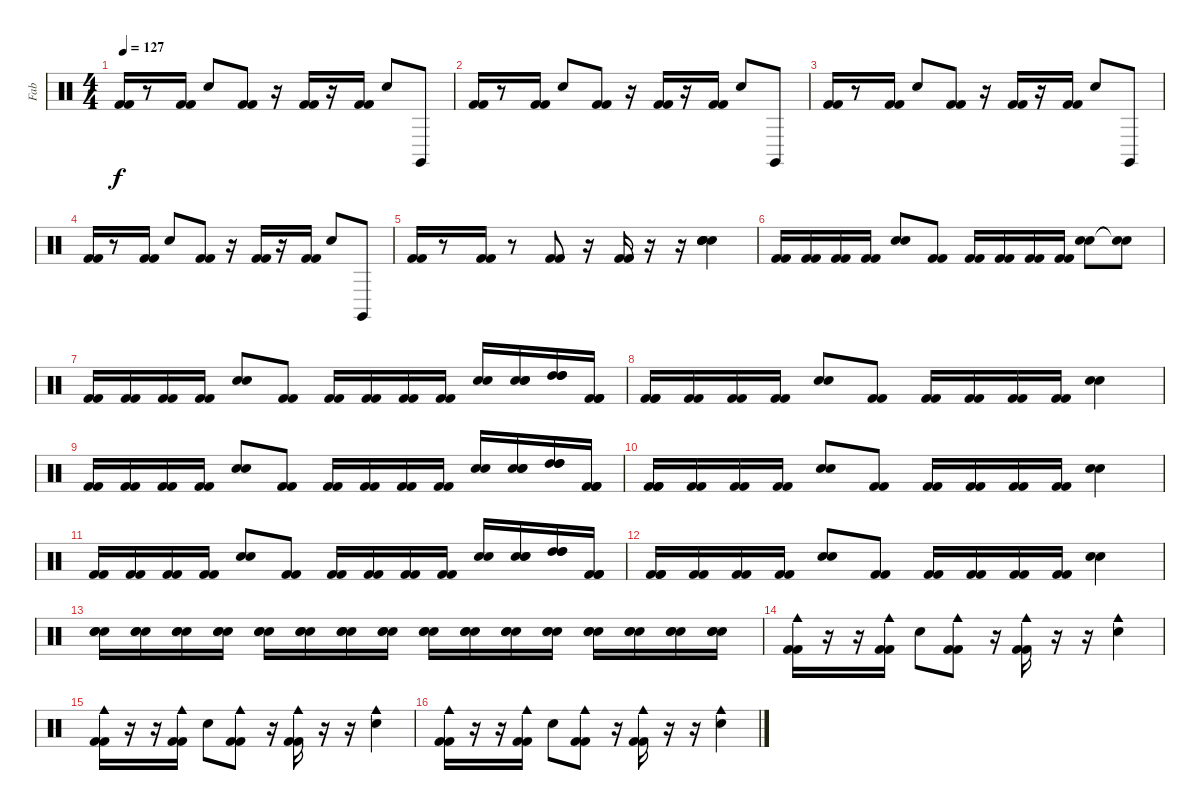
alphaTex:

\track ("Fab" "Fab") {instrument percussion}
\staff {score}
\articulation defaults
\ts (4 4)
\tempo 127
\clef neutral
\ks c
("Kick (hit) 2" "Kick (hit) 2").16{dy f} r.8 ("Kick (hit) 2" "Kick (hit) 2").16 "Electric Snare (hit)".8 ("Kick (hit) 2" "Kick (hit) 2").8 r.16 ("Kick (hit) 2" "Kick (hit) 2").16 r.16 ("Kick (hit) 2" "Kick (hit) 2").16 "Electric Snare (hit)".8 "Claves (hit)".8 |
("Kick (hit) 2" "Kick (hit) 2").16 r.8 ("Kick (hit) 2" "Kick (hit) 2").16 "Electric Snare (hit)".8 ("Kick (hit) 2" "Kick (hit) 2").8 r.16 ("Kick (hit) 2" "Kick (hit) 2").16 r.16 ("Kick (hit) 2" "Kick (hit) 2").16 "Electric Snare (hit)".8 "Claves (hit)".8 |
("Kick (hit) 2" "Kick (hit) 2").16 r.8 ("Kick (hit) 2" "Kick (hit) 2").16 "Electric Snare (hit)".8 ("Kick (hit) 2" "Kick (hit) 2").8 r.16 ("Kick (hit) 2" "Kick (hit) 2").16 r.16 ("Kick (hit) 2" "Kick (hit) 2").16 "Electric Snare (hit)".8 "Claves (hit)".8 |
("Kick (hit) 2" "Kick (hit) 2").16 r.8 ("Kick (hit) 2" "Kick (hit) 2").16 "Electric Snare (hit)".8 ("Kick (hit) 2" "Kick (hit) 2").8 r.16 ("Kick (hit) 2" "Kick (hit) 2").16 r.16 ("Kick (hit) 2" "Kick (hit) 2").16 "Electric Snare (hit)".8 "Claves (hit)".8 |
("Kick (hit) 2" "Kick (hit) 2").16 r.8 ("Kick (hit) 2" "Kick (hit) 2").16 r.8 ("Kick (hit) 2" "Kick (hit) 2").8 r.16 ("Kick (hit) 2" "Kick (hit) 2").16 r.16 r.16 ("Electric Snare (hit)" "Hand Clap (hit)" "Hand Clap (hit)" "Hand Clap (hit)").4 |
("Kick (hit) 2" "Kick (hit) 2").16 ("Kick (hit) 2" "Kick (hit) 2").16 ("Kick (hit) 2" "Kick (hit) 2").16 ("Kick (hit) 2" "Kick (hit) 2").16 ("Electric Snare (hit)" "Electric Snare (hit)").8 ("Kick (hit) 2" "Kick (hit) 2").8 ("Kick (hit) 2" "Kick (hit) 2").16 ("Kick (hit) 2" "Kick (hit) 2").16 ("Kick (hit) 2" "Kick (hit) 2").16 ("Kick (hit) 2" "Kick (hit) 2").16 ("Electric Snare (hit)" "Electric Snare (hit)").8 ("Snare (hit)"{t} "Snare (hit)"{t}).8 |
("Kick (hit) 2" "Kick (hit) 2").16 ("Kick (hit) 2" "Kick (hit) 2").16 ("Kick (hit) 2" "Kick (hit) 2").16 ("Kick (hit) 2" "Kick (hit) 2").16 ("Electric Snare (hit)" "Electric Snare (hit)").8 ("Kick (hit) 2" "Kick (hit) 2").8 ("Kick (hit) 2" "Kick (hit) 2").16 ("Kick (hit) 2" "Kick (hit) 2").16 ("Kick (hit) 2" "Kick (hit) 2").16 ("Kick (hit) 2" "Kick (hit) 2").16 ("Electric Snare (hit)" "Electric Snare (hit)").16 ("Snare (hit) 2" "Snare (hit) 2" "Snare (hit) 2").16 ("High Tom (hit)" "High Tom (hit)" "High Tom (hit)").16 ("Kick (hit) 2" "Kick (hit) 2" "Kick (hit) 2").16 |
("Kick (hit) 2" "Kick (hit) 2" "Kick (hit) 2").16 ("Kick (hit) 2" "Kick (hit) 2").16 ("Kick (hit) 2" "Kick (hit) 2").16 ("Kick (hit) 2" "Kick (hit) 2").16 ("Electric Snare (hit)" "Electric Snare (hit)").8 ("Kick (hit) 2" "Kick (hit) 2").8 ("Kick (hit) 2" "Kick (hit) 2").16 ("Kick (hit) 2" "Kick (hit) 2").16 ("Kick (hit) 2" "Kick (hit) 2").16 ("Kick (hit) 2" "Kick (hit) 2").16 ("Electric Snare (hit)" "Electric Snare (hit)").4 |
("Kick (hit) 2" "Kick (hit) 2").16 ("Kick (hit) 2" "Kick (hit) 2").16 ("Kick (hit) 2" "Kick (hit) 2").16 ("Kick (hit) 2" "Kick (hit) 2").16 ("Electric Snare (hit)" "Electric Snare (hit)").8 ("Kick (hit) 2" "Kick (hit) 2").8 ("Kick (hit) 2" "Kick (hit) 2").16 ("Kick (hit) 2" "Kick (hit) 2").16 ("Kick (hit) 2" "Kick (hit) 2").16 ("Kick (hit) 2" "Kick (hit) 2").16 ("Electric Snare (hit)" "Electric Snare (hit)").16 ("Snare (hit) 2" "Snare (hit) 2" "Snare (hit) 2").16 ("High Tom (hit)" "High Tom (hit)" "High Tom (hit)").16 ("Kick (hit) 2" "Kick (hit) 2" "Kick (hit) 2").16 |
("Kick (hit) 2" "Kick (hit) 2" "Kick (hit) 2").16 ("Kick (hit) 2" "Kick (hit) 2").16 ("Kick (hit) 2" "Kick (hit) 2").16 ("Kick (hit) 2" "Kick (hit) 2").16 ("Electric Snare (hit)" "Electric Snare (hit)").8 ("Kick (hit) 2" "Kick (hit) 2").8 ("Kick (hit) 2" "Kick (hit) 2").16 ("Kick (hit) 2" "Kick (hit) 2").16 ("Kick (hit) 2" "Kick (hit) 2").16 ("Kick (hit) 2" "Kick (hit) 2").16 ("Electric Snare (hit)" "Electric Snare (hit)").4 |
("Kick (hit) 2" "Kick (hit) 2").16 ("Kick (hit) 2" "Kick (hit) 2").16 ("Kick (hit) 2" "Kick (hit) 2").16 ("Kick (hit) 2" "Kick (hit) 2").16 ("Electric Snare (hit)" "Electric Snare (hit)").8 ("Kick (hit) 2" "Kick (hit) 2").8 ("Kick (hit) 2" "Kick (hit) 2").16 ("Kick (hit) 2" "Kick (hit) 2").16 ("Kick (hit) 2" "Kick (hit) 2").16 ("Kick (hit) 2" "Kick (hit) 2").16 ("Electric Snare (hit)" "Electric Snare (hit)").16 ("Snare (hit) 2" "Snare (hit) 2" "Snare (hit) 2").16 ("High Tom (hit)" "High Tom (hit)" "High Tom (hit)").16 ("Kick (hit) 2" "Kick (hit) 2" "Kick (hit) 2").16 |
("Kick (hit) 2" "Kick (hit) 2" "Kick (hit) 2").16 ("Kick (hit) 2" "Kick (hit) 2").16 ("Kick (hit) 2" "Kick (hit) 2").16 ("Kick (hit) 2" "Kick (hit) 2").16 ("Electric Snare (hit)" "Electric Snare (hit)").8 ("Kick (hit) 2" "Kick (hit) 2").8 ("Kick (hit) 2" "Kick (hit) 2").16 ("Kick (hit) 2" "Kick (hit) 2").16 ("Kick (hit) 2" "Kick (hit) 2").16 ("Kick (hit) 2" "Kick (hit) 2").16 ("Electric Snare (hit)" "Electric Snare (hit)").4 |
("Electric Snare (hit)" "Electric Snare (hit)" "Electric Snare (hit)").16 ("Electric Snare (hit)" "Electric Snare (hit)" "Electric Snare (hit)").16 ("Electric Snare (hit)" "Electric Snare (hit)" "Electric Snare (hit)").16 ("Electric Snare (hit)" "Electric Snare (hit)" "Electric Snare (hit)").16 ("Electric Snare (hit)" "Electric Snare (hit)" "Electric Snare (hit)").16 ("Electric Snare (hit)" "Electric Snare (hit)" "Electric Snare (hit)").16 ("Electric Snare (hit)" "Electric Snare (hit)" "Electric Snare (hit)").16 ("Electric Snare (hit)" "Electric Snare (hit)" "Electric Snare (hit)").16 ("Electric Snare (hit)" "Electric Snare (hit)" "Electric Snare (hit)").16 ("Electric Snare (hit)" "Electric Snare (hit)" "Electric Snare (hit)").16 ("Electric Snare (hit)" "Electric Snare (hit)" "Electric Snare (hit)").16 ("Electric Snare (hit)" "Electric Snare (hit)" "Electric Snare (hit)").16 ("Electric Snare (hit)" "Electric Snare (hit)" "Electric Snare (hit)").16 ("Electric Snare (hit)" "Electric Snare (hit)" "Electric Snare (hit)").16 ("Electric Snare (hit)" "Electric Snare (hit)" "Electric Snare (hit)").16 ("Electric Snare (hit)" "Electric Snare (hit)" "Electric Snare (hit)").16 |
("Kick (hit) 2" "Kick (hit) 2" "Cowbell medium (hit)").16 r.16 r.16 ("Kick (hit) 2" "Kick (hit) 2" "Cowbell medium (hit)").16 "Electric Snare (hit)".8 ("Kick (hit) 2" "Kick (hit) 2" "Cowbell medium (hit)").8 r.16 ("Kick (hit) 2" "Kick (hit) 2" "Cowbell medium (hit)").16 r.16 r.16 ("Electric Snare (hit)" "Cowbell medium (hit)").4 |
("Kick (hit) 2" "Kick (hit) 2" "Cowbell medium (hit)").16 r.16 r.16 ("Kick (hit) 2" "Kick (hit) 2" "Cowbell medium (hit)").16 "Electric Snare (hit)".8 ("Kick (hit) 2" "Kick (hit) 2" "Cowbell medium (hit)").8 r.16 ("Kick (hit) 2" "Kick (hit) 2" "Cowbell medium (hit)").16 r.16 r.16 ("Electric Snare (hit)" "Cowbell medium (hit)").4 |
("Kick (hit) 2" "Kick (hit) 2" "Cowbell medium (hit)").16 r.16 r.16 ("Kick (hit) 2" "Kick (hit) 2" "Cowbell medium (hit)").16 "Electric Snare (hit)".8 ("Kick (hit) 2" "Kick (hit) 2" "Cowbell medium (hit)").8 r.16 ("Kick (hit) 2" "Kick (hit) 2" "Cowbell medium (hit)").16 r.16 r.16 ("Electric Snare (hit)" "Cowbell medium (hit)").4
